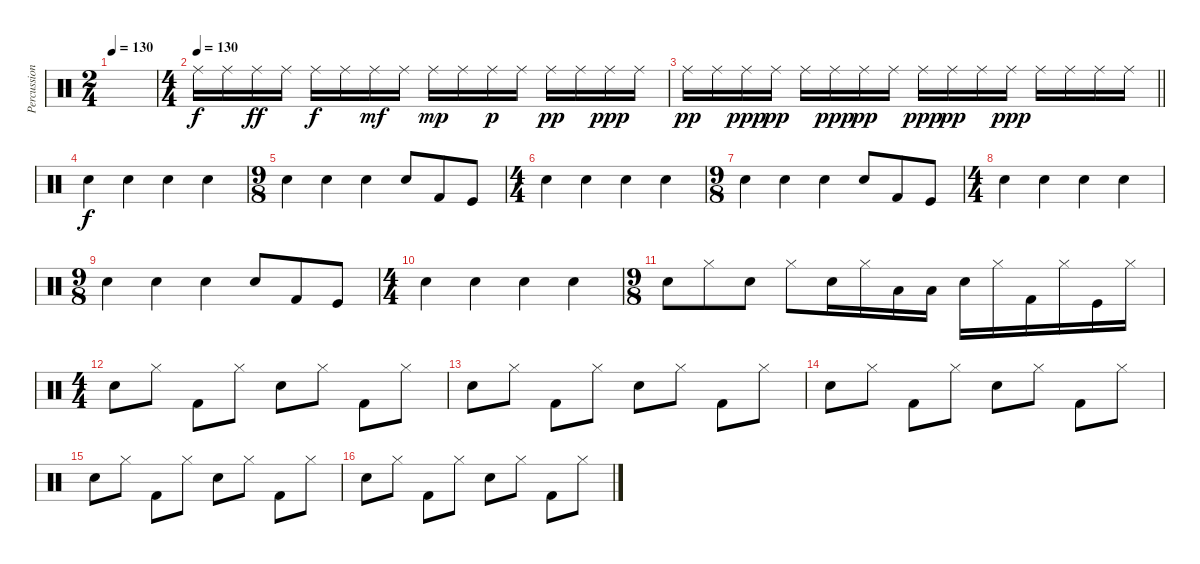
\track ("Percussion" "Percussion") {instrument percussion}
\staff {score}
\articulation defaults
\ts (2 4)
\tempo 130
\clef neutral
\ks c
|
\ts (4 4)
\tempo (130)
"Ride (middle)".16 "Ride (middle)".16 "Ride (middle)".16{dy ff} "Ride (middle)".16 "Ride (middle)".16{dy f} "Ride (middle)".16 "Ride (middle)".16{dy mf} "Ride (middle)".16 "Ride (middle)".16{dy mp} "Ride (middle)".16 "Ride (middle)".16{dy p} "Ride (middle)".16 "Ride (middle)".16{dy pp} "Ride (middle)".16 "Ride (middle)".16{dy ppp} "Ride (middle)".16 |
\barLineRight lightlight "Ride (middle)".16{dy pp} "Ride (middle)".16 "Ride (middle)".16{dy ppp} "Ride (middle)".16{dy pp} "Ride (middle)".16 "Ride (middle)".16{dy ppp} "Ride (middle)".16{dy pp} "Ride (middle)".16 "Ride (middle)".16{dy ppp} "Ride (middle)".16{dy pp} "Ride (middle)".16 "Ride (middle)".16{dy ppp} "Ride (middle)".16 "Ride (middle)".16 "Ride (middle)".16 "Ride (middle)".16
|
"Snare (hit) 2".4{dy f} "Snare (hit) 2".4 "Snare (hit) 2".4 "Snare (hit) 2".4 |
\ts (9 8)
"Snare (hit) 2".4 "Snare (hit) 2".4 "Snare (hit) 2".4 "Snare (hit) 2".8 "Kick (hit) 2".8 "Kick (hit)".8 |
\ts (4 4)
"Snare (hit) 2".4 "Snare (hit) 2".4 "Snare (hit) 2".4 "Snare (hit) 2".4 |
\ts (9 8)
"Snare (hit) 2".4 "Snare (hit) 2".4 "Snare (hit) 2".4 "Snare (hit) 2".8 "Kick (hit) 2".8 "Kick (hit)".8 |
\ts (4 4)
"Snare (hit) 2".4 "Snare (hit) 2".4 "Snare (hit) 2".4 "Snare (hit) 2".4 |
\ts (9 8)
"Snare (hit) 2".4 "Snare (hit) 2".4 "Snare (hit) 2".4 "Snare (hit) 2".8 "Kick (hit) 2".8 "Kick (hit)".8 |
\ts (4 4)
"Snare (hit) 2".4 "Snare (hit) 2".4 "Snare (hit) 2".4 "Snare (hit) 2".4 |
\ts (9 8)
"Snare (hit) 2".8 "Hi-Hat (closed)".8 "Snare (hit) 2".8 "Hi-Hat (closed)".8 "Snare (hit) 2".16 "Hi-Hat (closed)".16 "Low Floor Tom (hit)".16 "Low Floor Tom (hit)".16 "Snare (hit) 2".16 "Hi-Hat (closed)".16 "Kick (hit) 2".16 "Hi-Hat (closed)".16 "Kick (hit)".16 "Hi-Hat (closed)".16 |
\ts (4 4)
"Electric Snare (hit)".8 "Hi-Hat (closed)".8 "Kick (hit) 2".8 "Hi-Hat (closed)".8 "Electric Snare (hit)".8 "Hi-Hat (closed)".8 "Kick (hit) 2".8 "Hi-Hat (closed)".8 |
"Electric Snare (hit)".8 "Hi-Hat (closed)".8 "Kick (hit) 2".8 "Hi-Hat (closed)".8 "Electric Snare (hit)".8 "Hi-Hat (closed)".8 "Kick (hit) 2".8 "Hi-Hat (closed)".8 |
"Electric Snare (hit)".8 "Hi-Hat (closed)".8 "Kick (hit) 2".8 "Hi-Hat (closed)".8 "Electric Snare (hit)".8 "Hi-Hat (closed)".8 "Kick (hit) 2".8 "Hi-Hat (closed)".8 |
"Electric Snare (hit)".8 "Hi-Hat (closed)".8 "Kick (hit) 2".8 "Hi-Hat (closed)".8 "Electric Snare (hit)".8 "Hi-Hat (closed)".8 "Kick (hit) 2".8 "Hi-Hat (closed)".8 |
"Electric Snare (hit)".8 "Hi-Hat (closed)".8 "Kick (hit) 2".8 "Hi-Hat (closed)".8 "Electric Snare (hit)".8 "Hi-Hat (closed)".8 "Kick (hit) 2".8 "Hi-Hat (closed)".8
